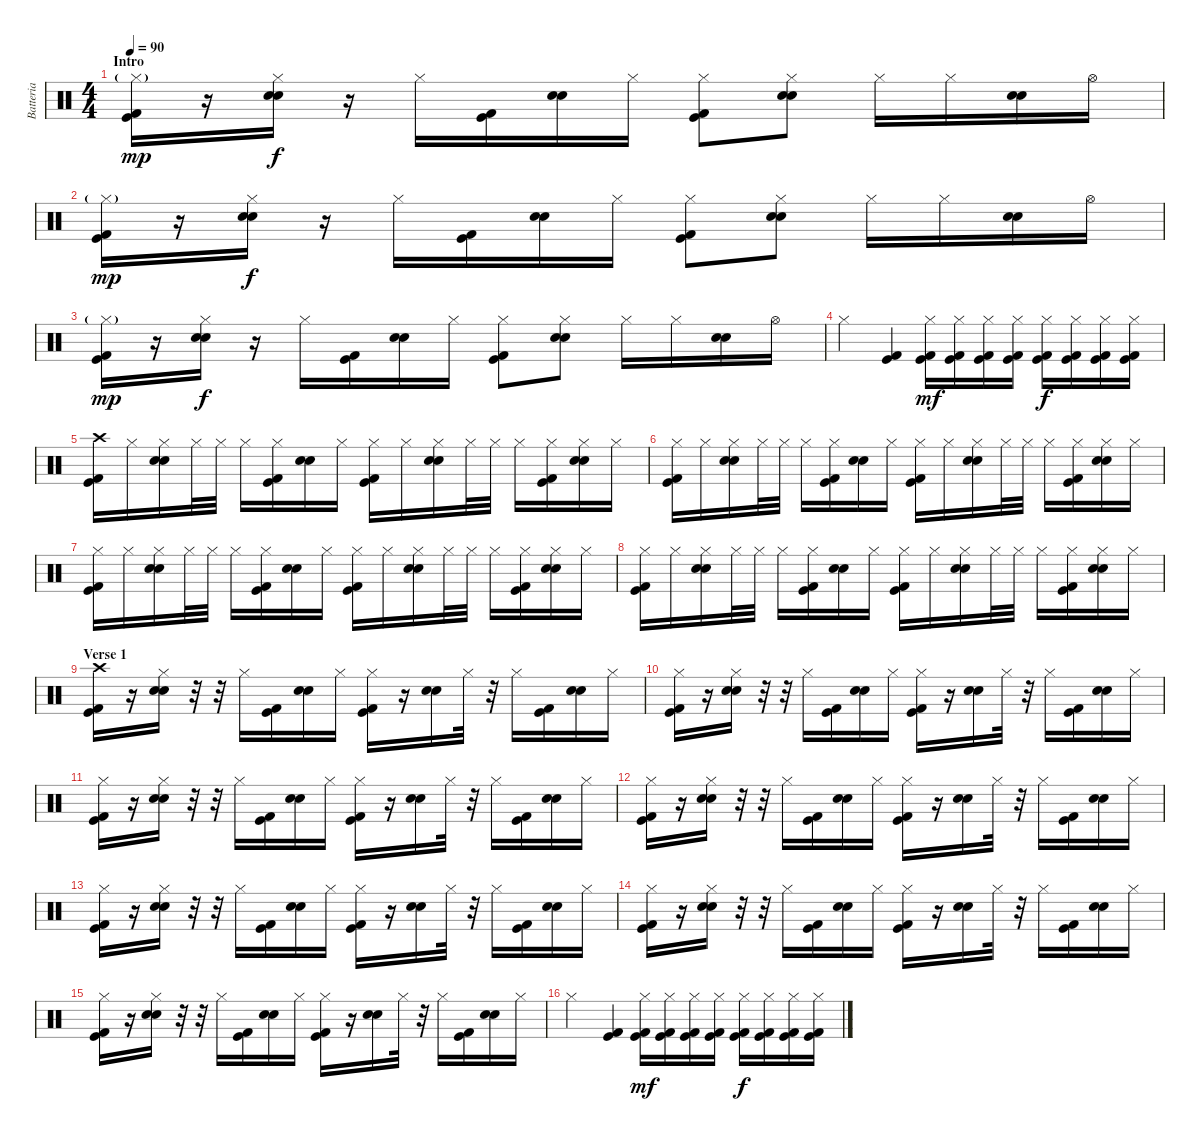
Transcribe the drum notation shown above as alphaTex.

\track ("Batteria" "Batteria") {instrument percussion}
\staff {score}
\articulation defaults
\ts (4 4)
\section ("" "Intro")
\tempo 90
\clef neutral
\ks c
("Hi-Hat (closed)"{g} "Kick (hit)" "Kick (hit) 2").16{dy mp} r.16 ("Hi-Hat (closed)" "Electric Snare (hit)" "Snare (hit) 2").16{dy f} r.16 "Hi-Hat (closed)".16 ("Kick (hit)" "Kick (hit) 2").16 ("Electric Snare (hit)" "Snare (hit) 2").16 "Hi-Hat (closed)".16 ("Hi-Hat (closed)" "Kick (hit)" "Kick (hit) 2").8 ("Hi-Hat (closed)" "Electric Snare (hit)" "Snare (hit) 2").8 "Hi-Hat (closed)".16 "Hi-Hat (closed)".16 ("Electric Snare (hit)" "Snare (hit) 2").16 "Hi-Hat (open)".16 |
("Hi-Hat (closed)"{g} "Kick (hit)" "Kick (hit) 2").16{dy mp} r.16 ("Hi-Hat (closed)" "Electric Snare (hit)" "Snare (hit) 2").16{dy f} r.16 "Hi-Hat (closed)".16 ("Kick (hit)" "Kick (hit) 2").16 ("Electric Snare (hit)" "Snare (hit) 2").16 "Hi-Hat (closed)".16 ("Hi-Hat (closed)" "Kick (hit)" "Kick (hit) 2").8 ("Hi-Hat (closed)" "Electric Snare (hit)" "Snare (hit) 2").8 "Hi-Hat (closed)".16 "Hi-Hat (closed)".16 ("Electric Snare (hit)" "Snare (hit) 2").16 "Hi-Hat (open)".16 |
("Hi-Hat (closed)"{g} "Kick (hit)" "Kick (hit) 2").16{dy mp} r.16 ("Hi-Hat (closed)" "Electric Snare (hit)" "Snare (hit) 2").16{dy f} r.16 "Hi-Hat (closed)".16 ("Kick (hit)" "Kick (hit) 2").16 ("Electric Snare (hit)" "Snare (hit) 2").16 "Hi-Hat (closed)".16 ("Hi-Hat (closed)" "Kick (hit)" "Kick (hit) 2").8 ("Hi-Hat (closed)" "Electric Snare (hit)" "Snare (hit) 2").8 "Hi-Hat (closed)".16 "Hi-Hat (closed)".16 ("Electric Snare (hit)" "Snare (hit) 2").16 "Hi-Hat (open)".16 |
"Hi-Hat (closed)".4 ("Kick (hit)" "Kick (hit) 2").4 ("Hi-Hat (closed)" "Kick (hit)" "Kick (hit) 2").16{dy mf} ("Hi-Hat (closed)" "Kick (hit)" "Kick (hit) 2").16 ("Hi-Hat (closed)" "Kick (hit)" "Kick (hit) 2").16 ("Hi-Hat (closed)" "Kick (hit)" "Kick (hit) 2").16 ("Hi-Hat (closed)" "Kick (hit)" "Kick (hit) 2").16{dy f} ("Hi-Hat (closed)" "Kick (hit)" "Kick (hit) 2").16 ("Hi-Hat (closed)" "Kick (hit)" "Kick (hit) 2").16 ("Hi-Hat (closed)" "Kick (hit)" "Kick (hit) 2").16 |
("Crash high (hit)" "Kick (hit)" "Kick (hit) 2").16 "Hi-Hat (closed)".16 ("Hi-Hat (closed)" "Snare (hit) 2" "Electric Snare (hit)").16 "Hi-Hat (closed)".32 "Hi-Hat (closed)".32 "Hi-Hat (closed)".16 ("Hi-Hat (closed)" "Kick (hit) 2" "Kick (hit)").16 ("Snare (hit) 2" "Electric Snare (hit)").16 "Hi-Hat (closed)".16 ("Hi-Hat (closed)" "Kick (hit) 2" "Kick (hit)").16 "Hi-Hat (closed)".16 ("Hi-Hat (closed)" "Snare (hit) 2" "Electric Snare (hit)").16 "Hi-Hat (closed)".32 "Hi-Hat (closed)".32 "Hi-Hat (closed)".16 ("Hi-Hat (closed)" "Kick (hit) 2" "Kick (hit)").16 ("Hi-Hat (closed)" "Snare (hit) 2" "Electric Snare (hit)").16 "Hi-Hat (closed)".16 |
("Hi-Hat (closed)" "Kick (hit)" "Kick (hit) 2").16 "Hi-Hat (closed)".16 ("Hi-Hat (closed)" "Snare (hit) 2" "Electric Snare (hit)").16 "Hi-Hat (closed)".32 "Hi-Hat (closed)".32 "Hi-Hat (closed)".16 ("Hi-Hat (closed)" "Kick (hit) 2" "Kick (hit)").16 ("Snare (hit) 2" "Electric Snare (hit)").16 "Hi-Hat (closed)".16 ("Hi-Hat (closed)" "Kick (hit) 2" "Kick (hit)").16 "Hi-Hat (closed)".16 ("Hi-Hat (closed)" "Snare (hit) 2" "Electric Snare (hit)").16 "Hi-Hat (closed)".32 "Hi-Hat (closed)".32 "Hi-Hat (closed)".16 ("Hi-Hat (closed)" "Kick (hit) 2" "Kick (hit)").16 ("Hi-Hat (closed)" "Snare (hit) 2" "Electric Snare (hit)").16 "Hi-Hat (closed)".16 |
("Hi-Hat (closed)" "Kick (hit)" "Kick (hit) 2").16 "Hi-Hat (closed)".16 ("Hi-Hat (closed)" "Snare (hit) 2" "Electric Snare (hit)").16 "Hi-Hat (closed)".32 "Hi-Hat (closed)".32 "Hi-Hat (closed)".16 ("Hi-Hat (closed)" "Kick (hit) 2" "Kick (hit)").16 ("Snare (hit) 2" "Electric Snare (hit)").16 "Hi-Hat (closed)".16 ("Hi-Hat (closed)" "Kick (hit) 2" "Kick (hit)").16 "Hi-Hat (closed)".16 ("Hi-Hat (closed)" "Snare (hit) 2" "Electric Snare (hit)").16 "Hi-Hat (closed)".32 "Hi-Hat (closed)".32 "Hi-Hat (closed)".16 ("Hi-Hat (closed)" "Kick (hit) 2" "Kick (hit)").16 ("Hi-Hat (closed)" "Snare (hit) 2" "Electric Snare (hit)").16 "Hi-Hat (closed)".16 |
("Hi-Hat (closed)" "Kick (hit)" "Kick (hit) 2").16 "Hi-Hat (closed)".16 ("Hi-Hat (closed)" "Snare (hit) 2" "Electric Snare (hit)").16 "Hi-Hat (closed)".32 "Hi-Hat (closed)".32 "Hi-Hat (closed)".16 ("Hi-Hat (closed)" "Kick (hit) 2" "Kick (hit)").16 ("Snare (hit) 2" "Electric Snare (hit)").16 "Hi-Hat (closed)".16 ("Hi-Hat (closed)" "Kick (hit) 2" "Kick (hit)").16 "Hi-Hat (closed)".16 ("Hi-Hat (closed)" "Snare (hit) 2" "Electric Snare (hit)").16 "Hi-Hat (closed)".32 "Hi-Hat (closed)".32 "Hi-Hat (closed)".16 ("Hi-Hat (closed)" "Kick (hit) 2" "Kick (hit)").16 ("Hi-Hat (closed)" "Snare (hit) 2" "Electric Snare (hit)").16 "Hi-Hat (closed)".16 |
\section ("" "Verse 1")
("Crash high (hit)" "Kick (hit)" "Kick (hit) 2").16 r.16 ("Hi-Hat (closed)" "Snare (hit) 2" "Electric Snare (hit)").16 r.32 r.32 "Hi-Hat (closed)".16 ("Kick (hit) 2" "Kick (hit)").16 ("Snare (hit) 2" "Electric Snare (hit)").16 "Hi-Hat (closed)".16 ("Hi-Hat (closed)" "Kick (hit) 2" "Kick (hit)").16 r.16 ("Snare (hit) 2" "Electric Snare (hit)").16 "Hi-Hat (closed)".32 r.32 "Hi-Hat (closed)".16 ("Kick (hit) 2" "Kick (hit)").16 ("Snare (hit) 2" "Electric Snare (hit)").16 "Hi-Hat (closed)".16 |
("Hi-Hat (closed)" "Kick (hit)" "Kick (hit) 2").16 r.16 ("Hi-Hat (closed)" "Snare (hit) 2" "Electric Snare (hit)").16 r.32 r.32 "Hi-Hat (closed)".16 ("Kick (hit) 2" "Kick (hit)").16 ("Snare (hit) 2" "Electric Snare (hit)").16 "Hi-Hat (closed)".16 ("Hi-Hat (closed)" "Kick (hit) 2" "Kick (hit)").16 r.16 ("Snare (hit) 2" "Electric Snare (hit)").16 "Hi-Hat (closed)".32 r.32 "Hi-Hat (closed)".16 ("Kick (hit) 2" "Kick (hit)").16 ("Snare (hit) 2" "Electric Snare (hit)").16 "Hi-Hat (closed)".16 |
("Hi-Hat (closed)" "Kick (hit)" "Kick (hit) 2").16 r.16 ("Hi-Hat (closed)" "Snare (hit) 2" "Electric Snare (hit)").16 r.32 r.32 "Hi-Hat (closed)".16 ("Kick (hit) 2" "Kick (hit)").16 ("Snare (hit) 2" "Electric Snare (hit)").16 "Hi-Hat (closed)".16 ("Hi-Hat (closed)" "Kick (hit) 2" "Kick (hit)").16 r.16 ("Snare (hit) 2" "Electric Snare (hit)").16 "Hi-Hat (closed)".32 r.32 "Hi-Hat (closed)".16 ("Kick (hit) 2" "Kick (hit)").16 ("Snare (hit) 2" "Electric Snare (hit)").16 "Hi-Hat (closed)".16 |
("Hi-Hat (closed)" "Kick (hit)" "Kick (hit) 2").16 r.16 ("Hi-Hat (closed)" "Snare (hit) 2" "Electric Snare (hit)").16 r.32 r.32 "Hi-Hat (closed)".16 ("Kick (hit) 2" "Kick (hit)").16 ("Snare (hit) 2" "Electric Snare (hit)").16 "Hi-Hat (closed)".16 ("Hi-Hat (closed)" "Kick (hit) 2" "Kick (hit)").16 r.16 ("Snare (hit) 2" "Electric Snare (hit)").16 "Hi-Hat (closed)".32 r.32 "Hi-Hat (closed)".16 ("Kick (hit) 2" "Kick (hit)").16 ("Snare (hit) 2" "Electric Snare (hit)").16 "Hi-Hat (closed)".16 |
("Hi-Hat (closed)" "Kick (hit)" "Kick (hit) 2").16 r.16 ("Hi-Hat (closed)" "Snare (hit) 2" "Electric Snare (hit)").16 r.32 r.32 "Hi-Hat (closed)".16 ("Kick (hit) 2" "Kick (hit)").16 ("Snare (hit) 2" "Electric Snare (hit)").16 "Hi-Hat (closed)".16 ("Hi-Hat (closed)" "Kick (hit) 2" "Kick (hit)").16 r.16 ("Snare (hit) 2" "Electric Snare (hit)").16 "Hi-Hat (closed)".32 r.32 "Hi-Hat (closed)".16 ("Kick (hit) 2" "Kick (hit)").16 ("Snare (hit) 2" "Electric Snare (hit)").16 "Hi-Hat (closed)".16 |
("Hi-Hat (closed)" "Kick (hit)" "Kick (hit) 2").16 r.16 ("Hi-Hat (closed)" "Snare (hit) 2" "Electric Snare (hit)").16 r.32 r.32 "Hi-Hat (closed)".16 ("Kick (hit) 2" "Kick (hit)").16 ("Snare (hit) 2" "Electric Snare (hit)").16 "Hi-Hat (closed)".16 ("Hi-Hat (closed)" "Kick (hit) 2" "Kick (hit)").16 r.16 ("Snare (hit) 2" "Electric Snare (hit)").16 "Hi-Hat (closed)".32 r.32 "Hi-Hat (closed)".16 ("Kick (hit) 2" "Kick (hit)").16 ("Snare (hit) 2" "Electric Snare (hit)").16 "Hi-Hat (closed)".16 |
("Hi-Hat (closed)" "Kick (hit)" "Kick (hit) 2").16 r.16 ("Hi-Hat (closed)" "Snare (hit) 2" "Electric Snare (hit)").16 r.32 r.32 "Hi-Hat (closed)".16 ("Kick (hit) 2" "Kick (hit)").16 ("Snare (hit) 2" "Electric Snare (hit)").16 "Hi-Hat (closed)".16 ("Hi-Hat (closed)" "Kick (hit) 2" "Kick (hit)").16 r.16 ("Snare (hit) 2" "Electric Snare (hit)").16 "Hi-Hat (closed)".32 r.32 "Hi-Hat (closed)".16 ("Kick (hit) 2" "Kick (hit)").16 ("Snare (hit) 2" "Electric Snare (hit)").16 "Hi-Hat (closed)".16 |
"Hi-Hat (closed)".4 ("Kick (hit)" "Kick (hit) 2").4 ("Hi-Hat (closed)" "Kick (hit)" "Kick (hit) 2").16{dy mf} ("Hi-Hat (closed)" "Kick (hit)" "Kick (hit) 2").16 ("Hi-Hat (closed)" "Kick (hit)" "Kick (hit) 2").16 ("Hi-Hat (closed)" "Kick (hit)" "Kick (hit) 2").16 ("Hi-Hat (closed)" "Kick (hit)" "Kick (hit) 2").16{dy f} ("Hi-Hat (closed)" "Kick (hit)" "Kick (hit) 2").16 ("Hi-Hat (closed)" "Kick (hit)" "Kick (hit) 2").16 ("Hi-Hat (closed)" "Kick (hit)" "Kick (hit) 2").16
